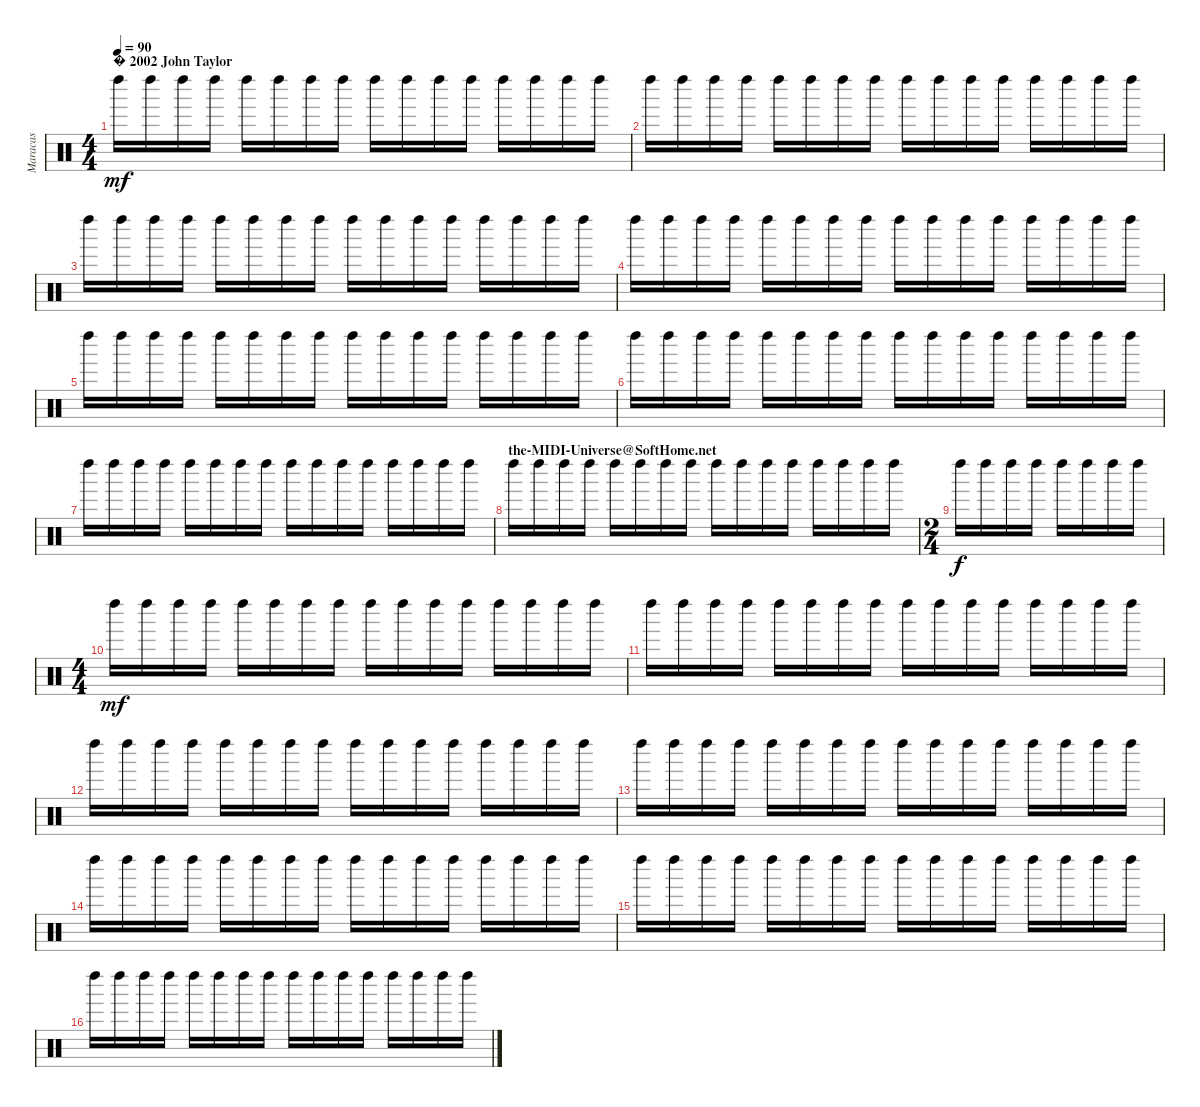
\track ("Maracas" "Maracas") {instrument percussion}
\staff {score}
\articulation defaults
\ts (4 4)
\section ("" "� 2002 John Taylor")
\tempo 90
\clef neutral
\ks c "Left Maraca (hit)".16{dy mf} "Left Maraca (hit)".16 "Left Maraca (hit)".16 "Left Maraca (hit)".16 "Left Maraca (hit)".16 "Left Maraca (hit)".16 "Left Maraca (hit)".16 "Left Maraca (hit)".16 "Left Maraca (hit)".16 "Left Maraca (hit)".16 "Left Maraca (hit)".16 "Left Maraca (hit)".16 "Left Maraca (hit)".16 "Left Maraca (hit)".16 "Left Maraca (hit)".16 "Left Maraca (hit)".16
|
"Left Maraca (hit)".16 "Left Maraca (hit)".16 "Left Maraca (hit)".16 "Left Maraca (hit)".16 "Left Maraca (hit)".16 "Left Maraca (hit)".16 "Left Maraca (hit)".16 "Left Maraca (hit)".16 "Left Maraca (hit)".16 "Left Maraca (hit)".16 "Left Maraca (hit)".16 "Left Maraca (hit)".16 "Left Maraca (hit)".16 "Left Maraca (hit)".16 "Left Maraca (hit)".16 "Left Maraca (hit)".16 |
"Left Maraca (hit)".16 "Left Maraca (hit)".16 "Left Maraca (hit)".16 "Left Maraca (hit)".16 "Left Maraca (hit)".16 "Left Maraca (hit)".16 "Left Maraca (hit)".16 "Left Maraca (hit)".16 "Left Maraca (hit)".16 "Left Maraca (hit)".16 "Left Maraca (hit)".16 "Left Maraca (hit)".16 "Left Maraca (hit)".16 "Left Maraca (hit)".16 "Left Maraca (hit)".16 "Left Maraca (hit)".16 |
"Left Maraca (hit)".16 "Left Maraca (hit)".16 "Left Maraca (hit)".16 "Left Maraca (hit)".16 "Left Maraca (hit)".16 "Left Maraca (hit)".16 "Left Maraca (hit)".16 "Left Maraca (hit)".16 "Left Maraca (hit)".16 "Left Maraca (hit)".16 "Left Maraca (hit)".16 "Left Maraca (hit)".16 "Left Maraca (hit)".16 "Left Maraca (hit)".16 "Left Maraca (hit)".16 "Left Maraca (hit)".16 |
"Left Maraca (hit)".16 "Left Maraca (hit)".16 "Left Maraca (hit)".16 "Left Maraca (hit)".16 "Left Maraca (hit)".16 "Left Maraca (hit)".16 "Left Maraca (hit)".16 "Left Maraca (hit)".16 "Left Maraca (hit)".16 "Left Maraca (hit)".16 "Left Maraca (hit)".16 "Left Maraca (hit)".16 "Left Maraca (hit)".16 "Left Maraca (hit)".16 "Left Maraca (hit)".16 "Left Maraca (hit)".16 |
"Left Maraca (hit)".16 "Left Maraca (hit)".16 "Left Maraca (hit)".16 "Left Maraca (hit)".16 "Left Maraca (hit)".16 "Left Maraca (hit)".16 "Left Maraca (hit)".16 "Left Maraca (hit)".16 "Left Maraca (hit)".16 "Left Maraca (hit)".16 "Left Maraca (hit)".16 "Left Maraca (hit)".16 "Left Maraca (hit)".16 "Left Maraca (hit)".16 "Left Maraca (hit)".16 "Left Maraca (hit)".16 |
"Left Maraca (hit)".16 "Left Maraca (hit)".16 "Left Maraca (hit)".16 "Left Maraca (hit)".16 "Left Maraca (hit)".16 "Left Maraca (hit)".16 "Left Maraca (hit)".16 "Left Maraca (hit)".16 "Left Maraca (hit)".16 "Left Maraca (hit)".16 "Left Maraca (hit)".16 "Left Maraca (hit)".16 "Left Maraca (hit)".16 "Left Maraca (hit)".16 "Left Maraca (hit)".16 "Left Maraca (hit)".16 |
\section ("" "the-MIDI-Universe@SoftHome.net")
"Left Maraca (hit)".16 "Left Maraca (hit)".16 "Left Maraca (hit)".16 "Left Maraca (hit)".16 "Left Maraca (hit)".16 "Left Maraca (hit)".16 "Left Maraca (hit)".16 "Left Maraca (hit)".16 "Left Maraca (hit)".16 "Left Maraca (hit)".16 "Left Maraca (hit)".16 "Left Maraca (hit)".16 "Left Maraca (hit)".16 "Left Maraca (hit)".16 "Left Maraca (hit)".16 "Left Maraca (hit)".16 |
\ts (2 4)
"Left Maraca (hit)".16{dy f} "Left Maraca (hit)".16 "Left Maraca (hit)".16 "Left Maraca (hit)".16 "Left Maraca (hit)".16 "Left Maraca (hit)".16 "Left Maraca (hit)".16 "Left Maraca (hit)".16 |
\ts (4 4)
"Left Maraca (hit)".16{dy mf} "Left Maraca (hit)".16 "Left Maraca (hit)".16 "Left Maraca (hit)".16 "Left Maraca (hit)".16 "Left Maraca (hit)".16 "Left Maraca (hit)".16 "Left Maraca (hit)".16 "Left Maraca (hit)".16 "Left Maraca (hit)".16 "Left Maraca (hit)".16 "Left Maraca (hit)".16 "Left Maraca (hit)".16 "Left Maraca (hit)".16 "Left Maraca (hit)".16 "Left Maraca (hit)".16 |
"Left Maraca (hit)".16 "Left Maraca (hit)".16 "Left Maraca (hit)".16 "Left Maraca (hit)".16 "Left Maraca (hit)".16 "Left Maraca (hit)".16 "Left Maraca (hit)".16 "Left Maraca (hit)".16 "Left Maraca (hit)".16 "Left Maraca (hit)".16 "Left Maraca (hit)".16 "Left Maraca (hit)".16 "Left Maraca (hit)".16 "Left Maraca (hit)".16 "Left Maraca (hit)".16 "Left Maraca (hit)".16 |
"Left Maraca (hit)".16 "Left Maraca (hit)".16 "Left Maraca (hit)".16 "Left Maraca (hit)".16 "Left Maraca (hit)".16 "Left Maraca (hit)".16 "Left Maraca (hit)".16 "Left Maraca (hit)".16 "Left Maraca (hit)".16 "Left Maraca (hit)".16 "Left Maraca (hit)".16 "Left Maraca (hit)".16 "Left Maraca (hit)".16 "Left Maraca (hit)".16 "Left Maraca (hit)".16 "Left Maraca (hit)".16 |
"Left Maraca (hit)".16 "Left Maraca (hit)".16 "Left Maraca (hit)".16 "Left Maraca (hit)".16 "Left Maraca (hit)".16 "Left Maraca (hit)".16 "Left Maraca (hit)".16 "Left Maraca (hit)".16 "Left Maraca (hit)".16 "Left Maraca (hit)".16 "Left Maraca (hit)".16 "Left Maraca (hit)".16 "Left Maraca (hit)".16 "Left Maraca (hit)".16 "Left Maraca (hit)".16 "Left Maraca (hit)".16 |
"Left Maraca (hit)".16 "Left Maraca (hit)".16 "Left Maraca (hit)".16 "Left Maraca (hit)".16 "Left Maraca (hit)".16 "Left Maraca (hit)".16 "Left Maraca (hit)".16 "Left Maraca (hit)".16 "Left Maraca (hit)".16 "Left Maraca (hit)".16 "Left Maraca (hit)".16 "Left Maraca (hit)".16 "Left Maraca (hit)".16 "Left Maraca (hit)".16 "Left Maraca (hit)".16 "Left Maraca (hit)".16 |
"Left Maraca (hit)".16 "Left Maraca (hit)".16 "Left Maraca (hit)".16 "Left Maraca (hit)".16 "Left Maraca (hit)".16 "Left Maraca (hit)".16 "Left Maraca (hit)".16 "Left Maraca (hit)".16 "Left Maraca (hit)".16 "Left Maraca (hit)".16 "Left Maraca (hit)".16 "Left Maraca (hit)".16 "Left Maraca (hit)".16 "Left Maraca (hit)".16 "Left Maraca (hit)".16 "Left Maraca (hit)".16 |
"Left Maraca (hit)".16 "Left Maraca (hit)".16 "Left Maraca (hit)".16 "Left Maraca (hit)".16 "Left Maraca (hit)".16 "Left Maraca (hit)".16 "Left Maraca (hit)".16 "Left Maraca (hit)".16 "Left Maraca (hit)".16 "Left Maraca (hit)".16 "Left Maraca (hit)".16 "Left Maraca (hit)".16 "Left Maraca (hit)".16 "Left Maraca (hit)".16 "Left Maraca (hit)".16 "Left Maraca (hit)".16
